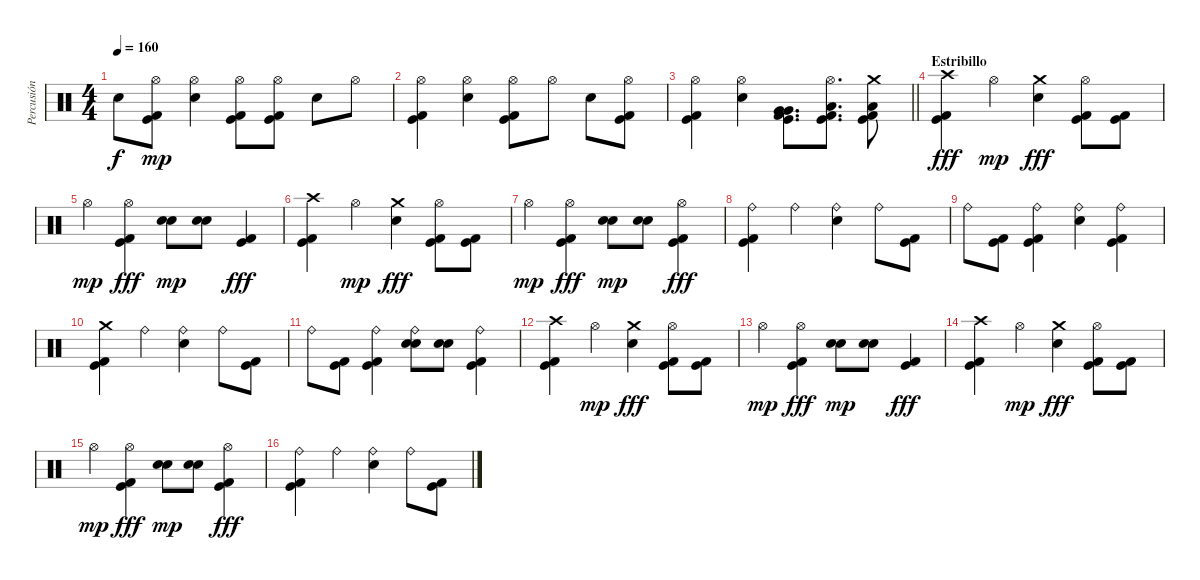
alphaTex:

\track ("Percusión" "Percusión") {instrument percussion}
\staff {score}
\articulation defaults
\ts (4 4)
\tempo 160
\clef neutral
\ks c "Snare (hit)"{t}.8{dy f}
("Hi-Hat (open)" "Kick (hit)" "Kick (hit) 2").8{dy mp} ("Hi-Hat (open)" "Electric Snare (hit)").4 ("Hi-Hat (open)" "Kick (hit)" "Kick (hit) 2").8 ("Hi-Hat (open)" "Kick (hit)" "Kick (hit) 2").8 "Electric Snare (hit)".8 "Hi-Hat (open)".8 |
("Hi-Hat (open)" "Kick (hit)" "Kick (hit) 2").4 ("Hi-Hat (open)" "Electric Snare (hit)").4 ("Hi-Hat (open)" "Kick (hit)" "Kick (hit) 2").8 "Hi-Hat (open)".8 "Electric Snare (hit)".8 ("Hi-Hat (open)" "Kick (hit)" "Kick (hit) 2").8 |
\barLineRight lightlight
("Hi-Hat (open)" "Kick (hit)" "Kick (hit) 2").4 ("Hi-Hat (open)" "Electric Snare (hit)").4 ("Very Low Tom (hit)" "Very Low Tom (hit)" "Kick (hit)" "Kick (hit) 2").8{d} ("Hi-Hat (open)" "Low Tom (hit)" "Kick (hit)" "Kick (hit) 2").8{d} ("Crash medium (hit)" "Low Tom (hit)" "Kick (hit)" "Kick (hit) 2").8 |
\section ("" "Estribillo")
("Crash high (hit)" "Kick (hit)" "Kick (hit) 2").4{dy fff} "Hi-Hat (open)".4{dy mp} ("Crash medium (hit)" "Electric Snare (hit)").4{dy fff} ("Hi-Hat (open)" "Kick (hit)" "Kick (hit) 2").8 ("Kick (hit)" "Kick (hit) 2").8 |
"Hi-Hat (open)".4{dy mp} ("Hi-Hat (open)" "Kick (hit)" "Kick (hit) 2").4{dy fff} ("Electric Snare (hit)" "Electric Snare (hit)").8{dy mp} ("Electric Snare (hit)" "Electric Snare (hit)").8 ("Kick (hit)" "Kick (hit) 2").4{dy fff} |
("Crash high (hit)" "Kick (hit)" "Kick (hit) 2").4 "Hi-Hat (open)".4{dy mp} ("Crash medium (hit)" "Electric Snare (hit)").4{dy fff} ("Hi-Hat (open)" "Kick (hit)" "Kick (hit) 2").8 ("Kick (hit)" "Kick (hit) 2").8 |
"Hi-Hat (open)".4{dy mp} ("Hi-Hat (open)" "Kick (hit)" "Kick (hit) 2").4{dy fff} ("Electric Snare (hit)" "Electric Snare (hit)").8{dy mp} ("Electric Snare (hit)" "Electric Snare (hit)").8 ("Hi-Hat (open)" "Kick (hit)" "Kick (hit) 2").4{dy fff} |
("Ride (bell)" "Kick (hit)" "Kick (hit) 2").4 "Ride (bell)".4 ("Ride (bell)" "Electric Snare (hit)").4 "Ride (bell)".8 ("Kick (hit)" "Kick (hit) 2").8 |
"Ride (bell)".8 ("Kick (hit)" "Kick (hit) 2").8 ("Ride (bell)" "Kick (hit)" "Kick (hit) 2").4 ("Ride (bell)" "Electric Snare (hit)").4 ("Ride (bell)" "Kick (hit)" "Kick (hit) 2").4 |
("Crash medium (hit)" "Kick (hit)" "Kick (hit) 2").4 "Ride (bell)".4 ("Ride (bell)" "Electric Snare (hit)").4 "Ride (bell)".8 ("Kick (hit)" "Kick (hit) 2").8 |
"Ride (bell)".8 ("Kick (hit)" "Kick (hit) 2").8 ("Ride (bell)" "Kick (hit)" "Kick (hit) 2").4 ("Ride (bell)" "Electric Snare (hit)" "Electric Snare (hit)").8 ("Electric Snare (hit)" "Electric Snare (hit)").8 ("Ride (bell)" "Kick (hit)" "Kick (hit) 2").4 |
("Crash high (hit)" "Kick (hit)" "Kick (hit) 2").4 "Hi-Hat (open)".4{dy mp} ("Crash medium (hit)" "Electric Snare (hit)").4{dy fff} ("Hi-Hat (open)" "Kick (hit)" "Kick (hit) 2").8 ("Kick (hit)" "Kick (hit) 2").8 |
"Hi-Hat (open)".4{dy mp} ("Hi-Hat (open)" "Kick (hit)" "Kick (hit) 2").4{dy fff} ("Electric Snare (hit)" "Electric Snare (hit)").8{dy mp} ("Electric Snare (hit)" "Electric Snare (hit)").8 ("Kick (hit)" "Kick (hit) 2").4{dy fff} |
("Crash high (hit)" "Kick (hit)" "Kick (hit) 2").4 "Hi-Hat (open)".4{dy mp} ("Crash medium (hit)" "Electric Snare (hit)").4{dy fff} ("Hi-Hat (open)" "Kick (hit)" "Kick (hit) 2").8 ("Kick (hit)" "Kick (hit) 2").8 |
"Hi-Hat (open)".4{dy mp} ("Hi-Hat (open)" "Kick (hit)" "Kick (hit) 2").4{dy fff} ("Electric Snare (hit)" "Electric Snare (hit)").8{dy mp} ("Electric Snare (hit)" "Electric Snare (hit)").8 ("Hi-Hat (open)" "Kick (hit)" "Kick (hit) 2").4{dy fff} |
("Ride (bell)" "Kick (hit)" "Kick (hit) 2").4 "Ride (bell)".4 ("Ride (bell)" "Electric Snare (hit)").4 "Ride (bell)".8 ("Kick (hit)" "Kick (hit) 2").8
